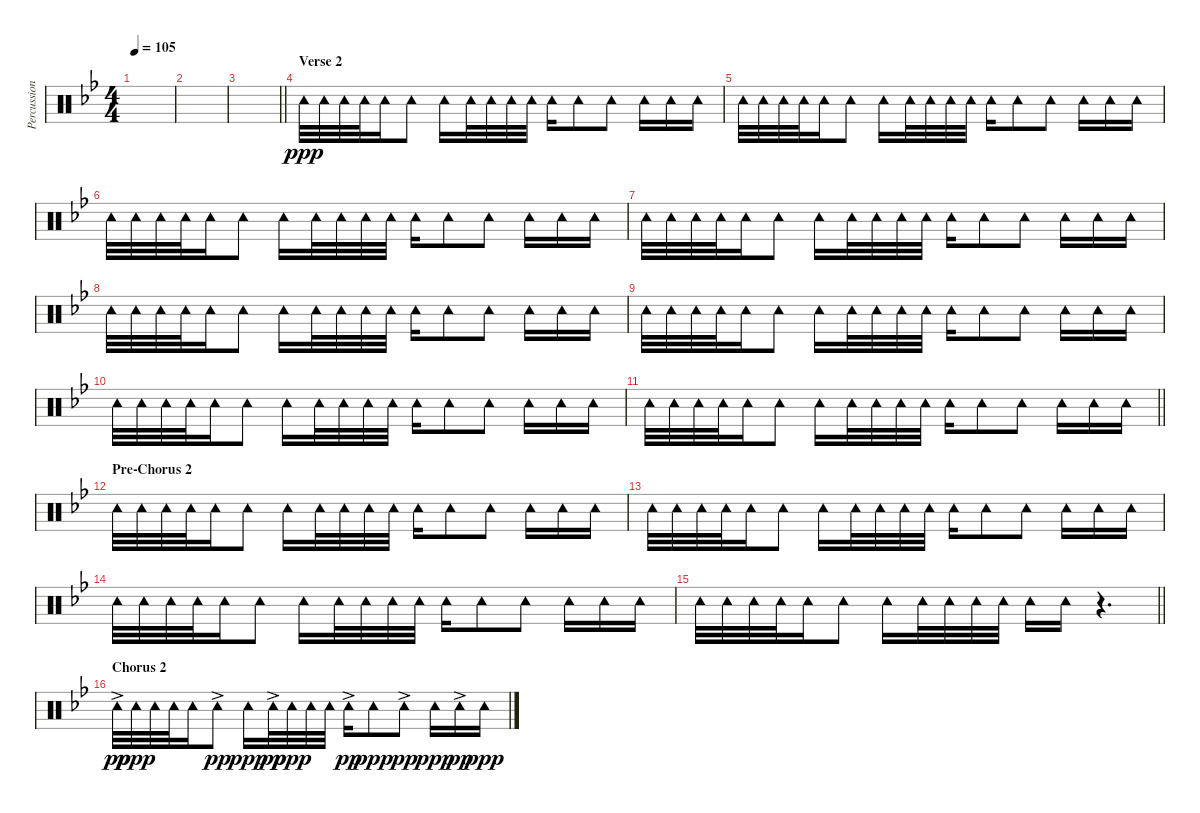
\track ("Percussion" "Percussion") {instrument percussion}
\staff {score}
\articulation defaults
\ts (4 4)
\tempo 105
\clef neutral
\ks bb
|
|
\barLineRight lightlight
|
\section ("" "Verse 2")
"Tambourine (hit)".32{dy ppp} "Tambourine (hit)".32 "Tambourine (hit)".32 "Tambourine (hit)".32 "Tambourine (hit)".16 "Tambourine (hit)".8 "Tambourine (hit)".16 "Tambourine (hit)".32 "Tambourine (hit)".32 "Tambourine (hit)".32 "Tambourine (hit)".32 "Tambourine (hit)".16 "Tambourine (hit)".8 "Tambourine (hit)".8 "Tambourine (hit)".16 "Tambourine (hit)".16 "Tambourine (hit)".16 |
"Tambourine (hit)".32 "Tambourine (hit)".32 "Tambourine (hit)".32 "Tambourine (hit)".32 "Tambourine (hit)".16 "Tambourine (hit)".8 "Tambourine (hit)".16 "Tambourine (hit)".32 "Tambourine (hit)".32 "Tambourine (hit)".32 "Tambourine (hit)".32 "Tambourine (hit)".16 "Tambourine (hit)".8 "Tambourine (hit)".8 "Tambourine (hit)".16 "Tambourine (hit)".16 "Tambourine (hit)".16 |
"Tambourine (hit)".32 "Tambourine (hit)".32 "Tambourine (hit)".32 "Tambourine (hit)".32 "Tambourine (hit)".16 "Tambourine (hit)".8 "Tambourine (hit)".16 "Tambourine (hit)".32 "Tambourine (hit)".32 "Tambourine (hit)".32 "Tambourine (hit)".32 "Tambourine (hit)".16 "Tambourine (hit)".8 "Tambourine (hit)".8 "Tambourine (hit)".16 "Tambourine (hit)".16 "Tambourine (hit)".16 |
"Tambourine (hit)".32 "Tambourine (hit)".32 "Tambourine (hit)".32 "Tambourine (hit)".32 "Tambourine (hit)".16 "Tambourine (hit)".8 "Tambourine (hit)".16 "Tambourine (hit)".32 "Tambourine (hit)".32 "Tambourine (hit)".32 "Tambourine (hit)".32 "Tambourine (hit)".16 "Tambourine (hit)".8 "Tambourine (hit)".8 "Tambourine (hit)".16 "Tambourine (hit)".16 "Tambourine (hit)".16 |
"Tambourine (hit)".32 "Tambourine (hit)".32 "Tambourine (hit)".32 "Tambourine (hit)".32 "Tambourine (hit)".16 "Tambourine (hit)".8 "Tambourine (hit)".16 "Tambourine (hit)".32 "Tambourine (hit)".32 "Tambourine (hit)".32 "Tambourine (hit)".32 "Tambourine (hit)".16 "Tambourine (hit)".8 "Tambourine (hit)".8 "Tambourine (hit)".16 "Tambourine (hit)".16 "Tambourine (hit)".16 |
"Tambourine (hit)".32 "Tambourine (hit)".32 "Tambourine (hit)".32 "Tambourine (hit)".32 "Tambourine (hit)".16 "Tambourine (hit)".8 "Tambourine (hit)".16 "Tambourine (hit)".32 "Tambourine (hit)".32 "Tambourine (hit)".32 "Tambourine (hit)".32 "Tambourine (hit)".16 "Tambourine (hit)".8 "Tambourine (hit)".8 "Tambourine (hit)".16 "Tambourine (hit)".16 "Tambourine (hit)".16 |
"Tambourine (hit)".32 "Tambourine (hit)".32 "Tambourine (hit)".32 "Tambourine (hit)".32 "Tambourine (hit)".16 "Tambourine (hit)".8 "Tambourine (hit)".16 "Tambourine (hit)".32 "Tambourine (hit)".32 "Tambourine (hit)".32 "Tambourine (hit)".32 "Tambourine (hit)".16 "Tambourine (hit)".8 "Tambourine (hit)".8 "Tambourine (hit)".16 "Tambourine (hit)".16 "Tambourine (hit)".16 |
\barLineRight lightlight "Tambourine (hit)".32 "Tambourine (hit)".32 "Tambourine (hit)".32 "Tambourine (hit)".32 "Tambourine (hit)".16 "Tambourine (hit)".8 "Tambourine (hit)".16 "Tambourine (hit)".32 "Tambourine (hit)".32 "Tambourine (hit)".32 "Tambourine (hit)".32 "Tambourine (hit)".16 "Tambourine (hit)".8 "Tambourine (hit)".8 "Tambourine (hit)".16 "Tambourine (hit)".16 "Tambourine (hit)".16
|
\section ("" "Pre-Chorus 2")
"Tambourine (hit)".32 "Tambourine (hit)".32 "Tambourine (hit)".32 "Tambourine (hit)".32 "Tambourine (hit)".16 "Tambourine (hit)".8 "Tambourine (hit)".16 "Tambourine (hit)".32 "Tambourine (hit)".32 "Tambourine (hit)".32 "Tambourine (hit)".32 "Tambourine (hit)".16 "Tambourine (hit)".8 "Tambourine (hit)".8 "Tambourine (hit)".16 "Tambourine (hit)".16 "Tambourine (hit)".16 |
"Tambourine (hit)".32 "Tambourine (hit)".32 "Tambourine (hit)".32 "Tambourine (hit)".32 "Tambourine (hit)".16 "Tambourine (hit)".8 "Tambourine (hit)".16 "Tambourine (hit)".32 "Tambourine (hit)".32 "Tambourine (hit)".32 "Tambourine (hit)".32 "Tambourine (hit)".16 "Tambourine (hit)".8 "Tambourine (hit)".8 "Tambourine (hit)".16 "Tambourine (hit)".16 "Tambourine (hit)".16 |
"Tambourine (hit)".32 "Tambourine (hit)".32 "Tambourine (hit)".32 "Tambourine (hit)".32 "Tambourine (hit)".16 "Tambourine (hit)".8 "Tambourine (hit)".16 "Tambourine (hit)".32 "Tambourine (hit)".32 "Tambourine (hit)".32 "Tambourine (hit)".32 "Tambourine (hit)".16 "Tambourine (hit)".8 "Tambourine (hit)".8 "Tambourine (hit)".16 "Tambourine (hit)".16 "Tambourine (hit)".16 |
\barLineRight lightlight "Tambourine (hit)".32 "Tambourine (hit)".32 "Tambourine (hit)".32 "Tambourine (hit)".32 "Tambourine (hit)".16 "Tambourine (hit)".8 "Tambourine (hit)".16 "Tambourine (hit)".32 "Tambourine (hit)".32 "Tambourine (hit)".32 "Tambourine (hit)".32 "Tambourine (hit)".16 "Tambourine (hit)".16
r.4{d} |
\section ("" "Chorus 2")
"Tambourine (hit)"{ac}.32{dy pp} "Tambourine (hit)".32{dy ppp} "Tambourine (hit)".32 "Tambourine (hit)".32 "Tambourine (hit)".16 "Tambourine (hit)"{ac}.8{dy pp} "Tambourine (hit)".16{dy ppp} "Tambourine (hit)"{ac}.32{dy pp} "Tambourine (hit)".32{dy ppp} "Tambourine (hit)".32 "Tambourine (hit)".32 "Tambourine (hit)"{ac}.16{dy pp} "Tambourine (hit)".8{dy ppp} "Tambourine (hit)"{ac}.8{dy pp} "Tambourine (hit)".16{dy ppp} "Tambourine (hit)"{ac}.16{dy pp} "Tambourine (hit)".16{dy ppp}
